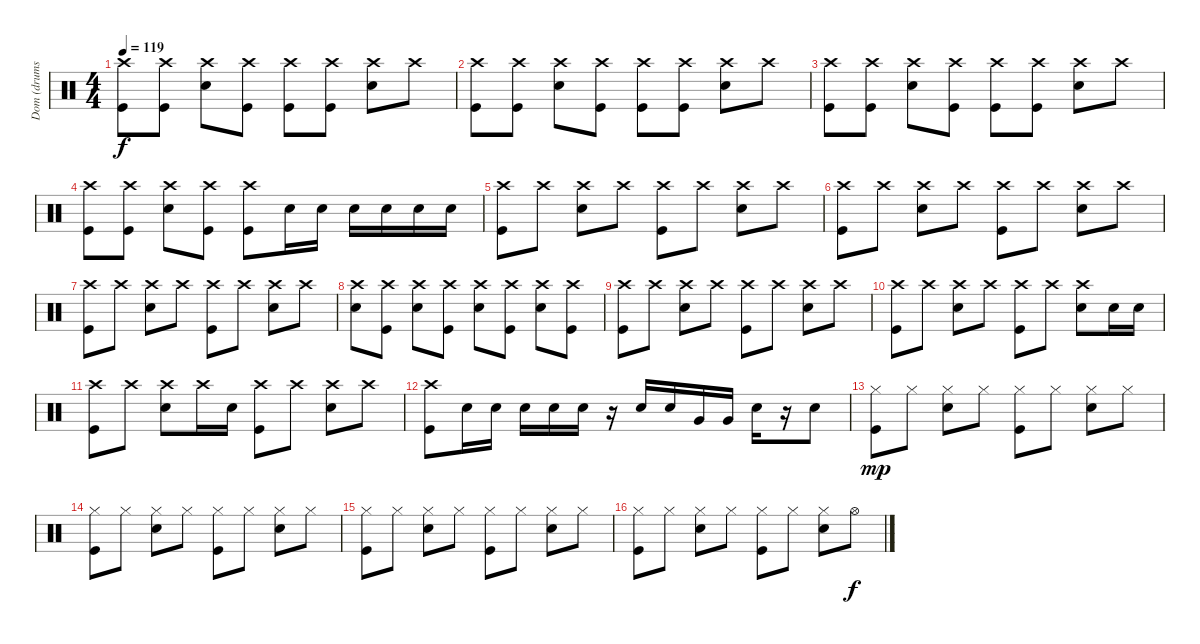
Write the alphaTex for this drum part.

\track ("Dom (drums)" "Dom (drums") {instrument percussion}
\staff {score}
\articulation defaults
\ts (4 4)
\tempo 119
\clef neutral
\ks c
("Crash high (hit)" "Kick (hit)").8{dy f} ("Crash high (hit)" "Kick (hit)").8 ("Crash high (hit)" "Snare (hit) 2").8 ("Crash high (hit)" "Kick (hit)").8 ("Crash high (hit)" "Kick (hit)").8 ("Crash high (hit)" "Kick (hit)").8 ("Crash high (hit)" "Snare (hit) 2").8 "Crash high (hit)".8 |
("Crash high (hit)" "Kick (hit)").8 ("Crash high (hit)" "Kick (hit)").8 ("Crash high (hit)" "Snare (hit) 2").8 ("Crash high (hit)" "Kick (hit)").8 ("Crash high (hit)" "Kick (hit)").8 ("Crash high (hit)" "Kick (hit)").8 ("Crash high (hit)" "Snare (hit) 2").8 "Crash high (hit)".8 |
("Crash high (hit)" "Kick (hit)").8 ("Crash high (hit)" "Kick (hit)").8 ("Crash high (hit)" "Snare (hit) 2").8 ("Crash high (hit)" "Kick (hit)").8 ("Crash high (hit)" "Kick (hit)").8 ("Crash high (hit)" "Kick (hit)").8 ("Crash high (hit)" "Snare (hit) 2").8 "Crash high (hit)".8 |
("Crash high (hit)" "Kick (hit)").8 ("Crash high (hit)" "Kick (hit)").8 ("Crash high (hit)" "Snare (hit) 2").8 ("Crash high (hit)" "Kick (hit)").8 ("Crash high (hit)" "Kick (hit)").8 "Snare (hit) 2".16 "Snare (hit) 2".16 "Snare (hit) 2".16 "Snare (hit) 2".16 "Snare (hit) 2".16 "Snare (hit) 2".16 |
("Crash high (hit)" "Kick (hit)").8 "Crash high (hit)".8 ("Crash high (hit)" "Snare (hit) 2").8 "Crash high (hit)".8 ("Crash high (hit)" "Kick (hit)").8 "Crash high (hit)".8 ("Crash high (hit)" "Snare (hit) 2").8 "Crash high (hit)".8 |
("Crash high (hit)" "Kick (hit)").8 "Crash high (hit)".8 ("Crash high (hit)" "Snare (hit) 2").8 "Crash high (hit)".8 ("Crash high (hit)" "Kick (hit)").8 "Crash high (hit)".8 ("Crash high (hit)" "Snare (hit) 2").8 "Crash high (hit)".8 |
("Crash high (hit)" "Kick (hit)").8 "Crash high (hit)".8 ("Crash high (hit)" "Snare (hit) 2").8 "Crash high (hit)".8 ("Crash high (hit)" "Kick (hit)").8 "Crash high (hit)".8 ("Crash high (hit)" "Snare (hit) 2").8 "Crash high (hit)".8 |
("Crash high (hit)" "Snare (hit) 2").8 ("Crash high (hit)" "Kick (hit)").8 ("Crash high (hit)" "Snare (hit) 2").8 ("Crash high (hit)" "Kick (hit)").8 ("Crash high (hit)" "Snare (hit) 2").8 ("Crash high (hit)" "Kick (hit)").8 ("Crash high (hit)" "Snare (hit) 2").8 ("Crash high (hit)" "Kick (hit)").8 |
("Crash high (hit)" "Kick (hit)").8 "Crash high (hit)".8 ("Crash high (hit)" "Snare (hit) 2").8 "Crash high (hit)".8 ("Crash high (hit)" "Kick (hit)").8 "Crash high (hit)".8 ("Crash high (hit)" "Snare (hit) 2").8 "Crash high (hit)".8 |
("Crash high (hit)" "Kick (hit)").8 "Crash high (hit)".8 ("Crash high (hit)" "Snare (hit) 2").8 "Crash high (hit)".8 ("Crash high (hit)" "Kick (hit)").8 "Crash high (hit)".8 ("Crash high (hit)" "Snare (hit) 2").8 "Snare (hit) 2".16 "Snare (hit) 2".16 |
("Crash high (hit)" "Kick (hit)").8 "Crash high (hit)".8 ("Crash high (hit)" "Snare (hit) 2").8 "Crash high (hit)".16 "Snare (hit) 2".16 ("Crash high (hit)" "Kick (hit)").8 "Crash high (hit)".8 ("Crash high (hit)" "Snare (hit) 2").8 "Crash high (hit)".8 |
("Crash high (hit)" "Kick (hit)").8 "Snare (hit) 2".16 "Snare (hit) 2".16 "Snare (hit) 2".16 "Snare (hit) 2".16 "Snare (hit) 2".16 r.16 "Snare (hit) 2".16 "Snare (hit) 2".16 "Very Low Tom (hit)".16 "Very Low Tom (hit)".16 "Snare (hit) 2".16 r.16 "Snare (hit) 2".8 |
("Hi-Hat (closed)" "Kick (hit)").8{dy mp} "Hi-Hat (closed)".8 ("Hi-Hat (closed)" "Snare (hit) 2").8 "Hi-Hat (closed)".8 ("Hi-Hat (closed)" "Kick (hit)").8 "Hi-Hat (closed)".8 ("Hi-Hat (closed)" "Snare (hit) 2").8 "Hi-Hat (closed)".8 |
("Hi-Hat (closed)" "Kick (hit)").8 "Hi-Hat (closed)".8 ("Hi-Hat (closed)" "Snare (hit) 2").8 "Hi-Hat (closed)".8 ("Hi-Hat (closed)" "Kick (hit)").8 "Hi-Hat (closed)".8 ("Hi-Hat (closed)" "Snare (hit) 2").8 "Hi-Hat (closed)".8 |
("Hi-Hat (closed)" "Kick (hit)").8 "Hi-Hat (closed)".8 ("Hi-Hat (closed)" "Snare (hit) 2").8 "Hi-Hat (closed)".8 ("Hi-Hat (closed)" "Kick (hit)").8 "Hi-Hat (closed)".8 ("Hi-Hat (closed)" "Snare (hit) 2").8 "Hi-Hat (closed)".8 |
("Hi-Hat (closed)" "Kick (hit)").8 "Hi-Hat (closed)".8 ("Hi-Hat (closed)" "Snare (hit) 2").8 "Hi-Hat (closed)".8 ("Hi-Hat (closed)" "Kick (hit)").8 "Hi-Hat (closed)".8 ("Hi-Hat (closed)" "Snare (hit) 2").8 "Hi-Hat (open)".8{dy f}
